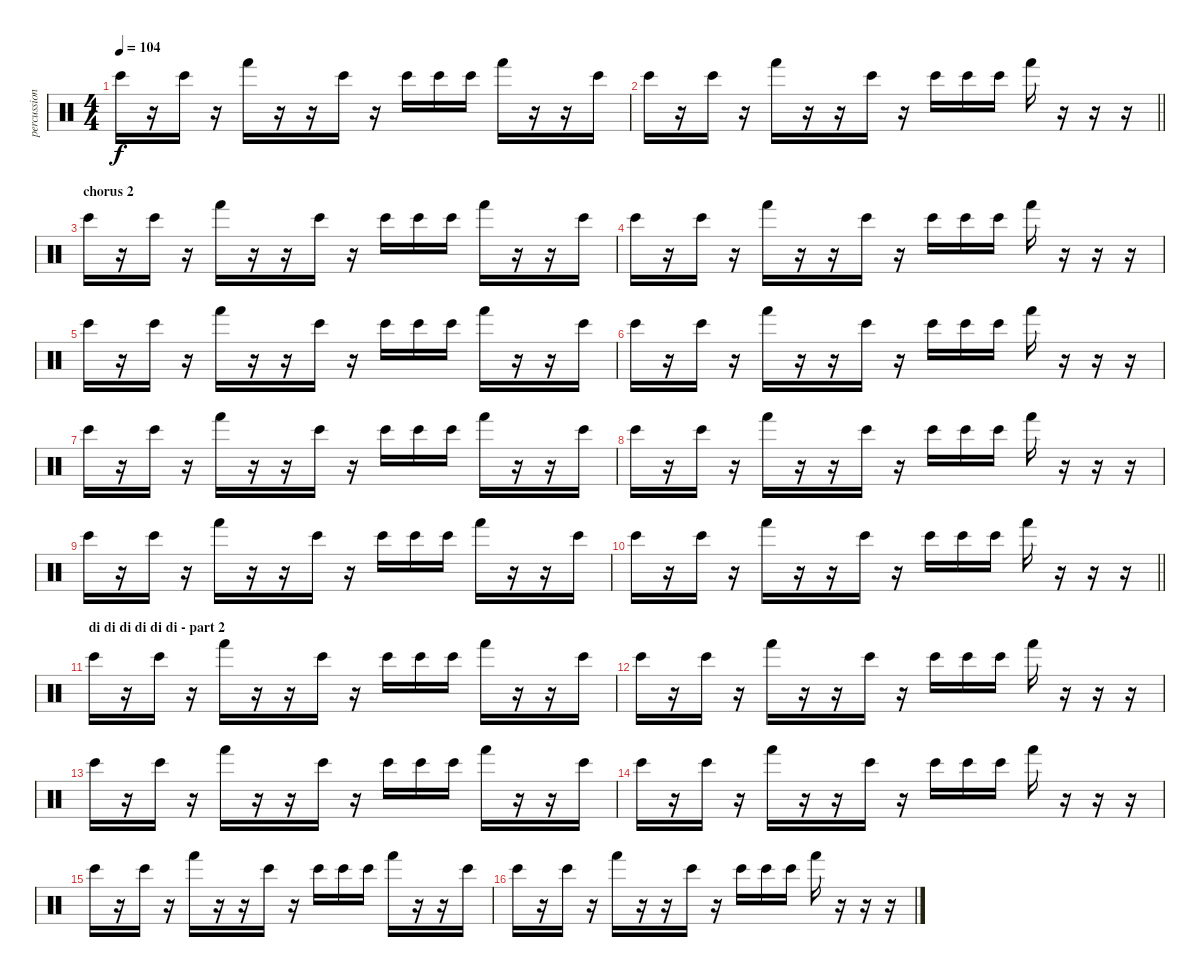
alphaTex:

\track ("percussion" "percussion") {instrument percussion}
\staff {score}
\articulation defaults
\ts (4 4)
\tempo 104
\clef neutral
\ks c "Bongo High (hit)".16{dy f}
r.16 "Bongo High (hit)".16 r.16 "Hand (hit)".16 r.16 r.16 "Bongo High (hit)".16 r.16 "Bongo High (hit)".16 "Bongo High (hit)".16 "Bongo High (hit)".16 "Hand (hit)".16 r.16 r.16 "Bongo High (hit)".16 |
\barLineRight lightlight "Bongo High (hit)".16
r.16 "Bongo High (hit)".16 r.16 "Hand (hit)".16 r.16 r.16 "Bongo High (hit)".16 r.16 "Bongo High (hit)".16 "Bongo High (hit)".16 "Bongo High (hit)".16 "Hand (hit)".16 r.16 r.16 r.16 |
\section ("" "chorus 2")
"Bongo High (hit)".16 r.16 "Bongo High (hit)".16 r.16 "Hand (hit)".16 r.16 r.16 "Bongo High (hit)".16 r.16 "Bongo High (hit)".16 "Bongo High (hit)".16 "Bongo High (hit)".16 "Hand (hit)".16 r.16 r.16 "Bongo High (hit)".16 |
"Bongo High (hit)".16 r.16 "Bongo High (hit)".16 r.16 "Hand (hit)".16 r.16 r.16 "Bongo High (hit)".16 r.16 "Bongo High (hit)".16 "Bongo High (hit)".16 "Bongo High (hit)".16 "Hand (hit)".16 r.16 r.16 r.16 |
"Bongo High (hit)".16 r.16 "Bongo High (hit)".16 r.16 "Hand (hit)".16 r.16 r.16 "Bongo High (hit)".16 r.16 "Bongo High (hit)".16 "Bongo High (hit)".16 "Bongo High (hit)".16 "Hand (hit)".16 r.16 r.16 "Bongo High (hit)".16 |
"Bongo High (hit)".16 r.16 "Bongo High (hit)".16 r.16 "Hand (hit)".16 r.16 r.16 "Bongo High (hit)".16 r.16 "Bongo High (hit)".16 "Bongo High (hit)".16 "Bongo High (hit)".16 "Hand (hit)".16 r.16 r.16 r.16 |
"Bongo High (hit)".16 r.16 "Bongo High (hit)".16 r.16 "Hand (hit)".16 r.16 r.16 "Bongo High (hit)".16 r.16 "Bongo High (hit)".16 "Bongo High (hit)".16 "Bongo High (hit)".16 "Hand (hit)".16 r.16 r.16 "Bongo High (hit)".16 |
"Bongo High (hit)".16 r.16 "Bongo High (hit)".16 r.16 "Hand (hit)".16 r.16 r.16 "Bongo High (hit)".16 r.16 "Bongo High (hit)".16 "Bongo High (hit)".16 "Bongo High (hit)".16 "Hand (hit)".16 r.16 r.16 r.16 |
"Bongo High (hit)".16 r.16 "Bongo High (hit)".16 r.16 "Hand (hit)".16 r.16 r.16 "Bongo High (hit)".16 r.16 "Bongo High (hit)".16 "Bongo High (hit)".16 "Bongo High (hit)".16 "Hand (hit)".16 r.16 r.16 "Bongo High (hit)".16 |
\barLineRight lightlight "Bongo High (hit)".16
r.16 "Bongo High (hit)".16 r.16 "Hand (hit)".16 r.16 r.16 "Bongo High (hit)".16 r.16 "Bongo High (hit)".16 "Bongo High (hit)".16 "Bongo High (hit)".16 "Hand (hit)".16 r.16 r.16 r.16 |
\section ("" "di di di di di di - part 2")
"Bongo High (hit)".16 r.16 "Bongo High (hit)".16 r.16 "Hand (hit)".16 r.16 r.16 "Bongo High (hit)".16 r.16 "Bongo High (hit)".16 "Bongo High (hit)".16 "Bongo High (hit)".16 "Hand (hit)".16 r.16 r.16 "Bongo High (hit)".16 |
"Bongo High (hit)".16 r.16 "Bongo High (hit)".16 r.16 "Hand (hit)".16 r.16 r.16 "Bongo High (hit)".16 r.16 "Bongo High (hit)".16 "Bongo High (hit)".16 "Bongo High (hit)".16 "Hand (hit)".16 r.16 r.16 r.16 |
"Bongo High (hit)".16 r.16 "Bongo High (hit)".16 r.16 "Hand (hit)".16 r.16 r.16 "Bongo High (hit)".16 r.16 "Bongo High (hit)".16 "Bongo High (hit)".16 "Bongo High (hit)".16 "Hand (hit)".16 r.16 r.16 "Bongo High (hit)".16 |
"Bongo High (hit)".16 r.16 "Bongo High (hit)".16 r.16 "Hand (hit)".16 r.16 r.16 "Bongo High (hit)".16 r.16 "Bongo High (hit)".16 "Bongo High (hit)".16 "Bongo High (hit)".16 "Hand (hit)".16 r.16 r.16 r.16 |
"Bongo High (hit)".16 r.16 "Bongo High (hit)".16 r.16 "Hand (hit)".16 r.16 r.16 "Bongo High (hit)".16 r.16 "Bongo High (hit)".16 "Bongo High (hit)".16 "Bongo High (hit)".16 "Hand (hit)".16 r.16 r.16 "Bongo High (hit)".16 |
"Bongo High (hit)".16 r.16 "Bongo High (hit)".16 r.16 "Hand (hit)".16 r.16 r.16 "Bongo High (hit)".16 r.16 "Bongo High (hit)".16 "Bongo High (hit)".16 "Bongo High (hit)".16 "Hand (hit)".16 r.16 r.16 r.16
